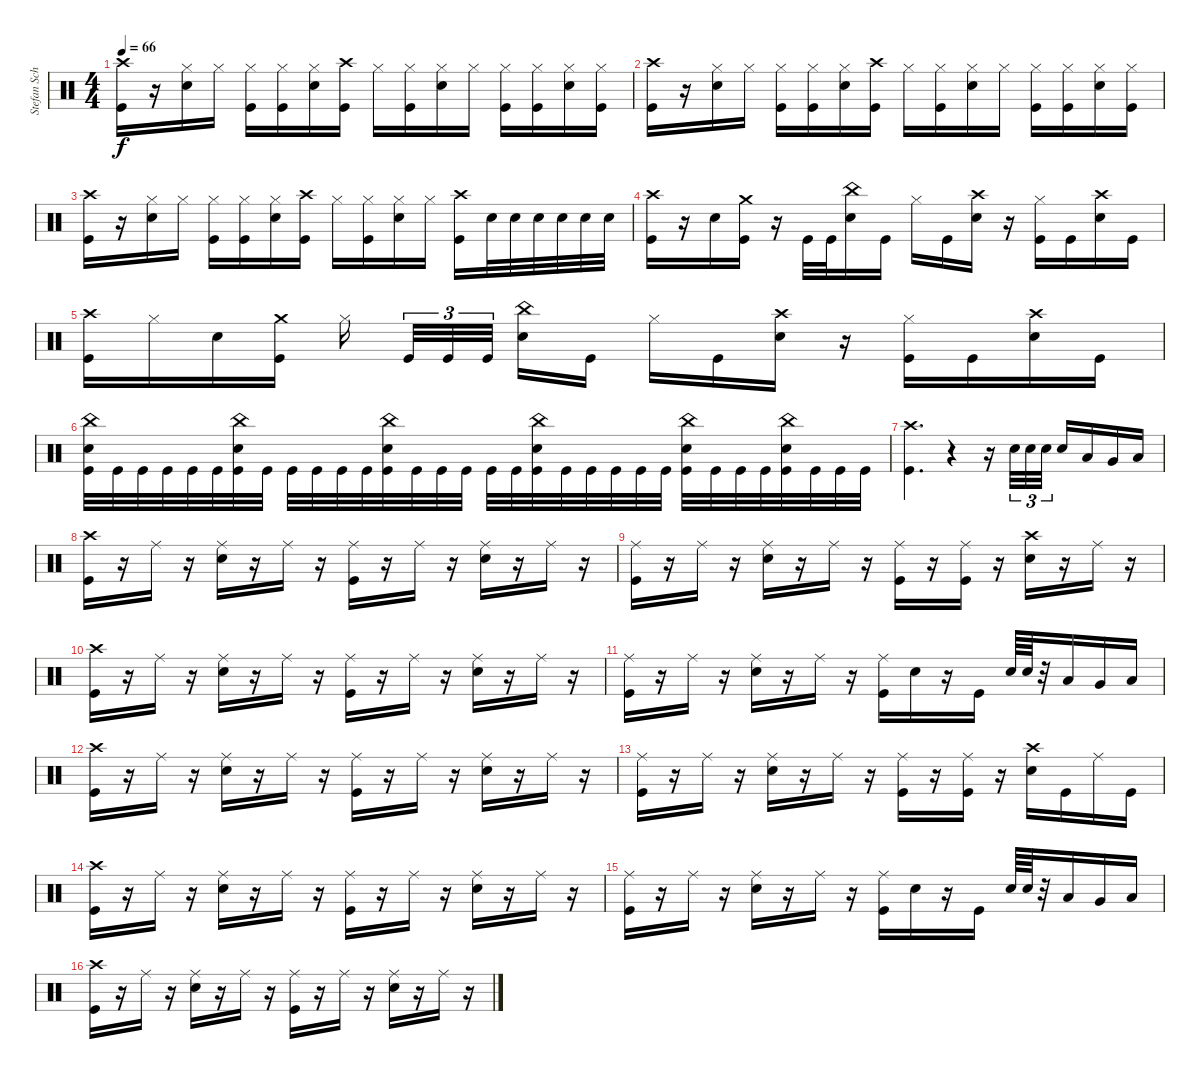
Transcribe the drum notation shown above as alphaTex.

\track ("Stefan Schwarzmann" "Stefan Sch") {instrument percussion}
\staff {score}
\articulation defaults
\ts (4 4)
\tempo 66
\clef neutral
\ks c
("Kick (hit)" "Crash high (hit)").16{dy f} r.16 ("Snare (hit) 2" "Hi-Hat (closed)").16 "Hi-Hat (closed)".16 ("Kick (hit)" "Hi-Hat (closed)").16 ("Kick (hit)" "Hi-Hat (closed)").16 ("Snare (hit) 2" "Hi-Hat (closed)").16 ("Kick (hit)" "Crash high (hit)").16 "Hi-Hat (closed)".16 ("Kick (hit)" "Hi-Hat (closed)").16 ("Snare (hit) 2" "Hi-Hat (closed)").16 "Hi-Hat (closed)".16 ("Kick (hit)" "Hi-Hat (closed)").16 ("Kick (hit)" "Hi-Hat (closed)").16 ("Snare (hit) 2" "Hi-Hat (closed)").16 ("Kick (hit)" "Hi-Hat (closed)").16 |
("Kick (hit)" "Crash high (hit)").16 r.16 ("Snare (hit) 2" "Hi-Hat (closed)").16 "Hi-Hat (closed)".16 ("Kick (hit)" "Hi-Hat (closed)").16 ("Kick (hit)" "Hi-Hat (closed)").16 ("Snare (hit) 2" "Hi-Hat (closed)").16 ("Kick (hit)" "Crash high (hit)").16 "Hi-Hat (closed)".16 ("Kick (hit)" "Hi-Hat (closed)").16 ("Snare (hit) 2" "Hi-Hat (closed)").16 "Hi-Hat (closed)".16 ("Kick (hit)" "Hi-Hat (closed)").16 ("Kick (hit)" "Hi-Hat (closed)").16 ("Snare (hit) 2" "Hi-Hat (closed)").16 ("Kick (hit)" "Hi-Hat (closed)").16 |
("Kick (hit)" "Crash high (hit)").16 r.16 ("Snare (hit) 2" "Hi-Hat (closed)").16 "Hi-Hat (closed)".16 ("Kick (hit)" "Hi-Hat (closed)").16 ("Kick (hit)" "Hi-Hat (closed)").16 ("Snare (hit) 2" "Hi-Hat (closed)").16 ("Kick (hit)" "Crash high (hit)").16 "Hi-Hat (closed)".16 ("Kick (hit)" "Hi-Hat (closed)").16 ("Snare (hit) 2" "Hi-Hat (closed)").16 "Hi-Hat (closed)".16 ("Kick (hit)" "Crash high (hit)").16 "Snare (hit) 2".32 "Snare (hit) 2".32 "Snare (hit) 2".32 "Snare (hit) 2".32 "Snare (hit) 2".32 "Snare (hit) 2".32 |
("Kick (hit)" "Crash high (hit)").16 r.16 "Snare (hit) 2".16 ("Kick (hit)" "Crash medium (hit)").16 r.16 "Kick (hit)".32 "Kick (hit)".32 ("Snare (hit) 2" "China (hit)").16 "Kick (hit)".16 "Hi-Hat (closed)".16 "Kick (hit)".16 ("Crash high (hit)" "Snare (hit) 2").16 r.16 ("Kick (hit)" "Hi-Hat (closed)").16 "Kick (hit)".16 ("Snare (hit) 2" "Crash high (hit)").16 "Kick (hit)".16 |
("Kick (hit)" "Crash high (hit)").16 "Hi-Hat (closed)".16 "Snare (hit) 2".16 ("Kick (hit)" "Crash medium (hit)").16 "Hi-Hat (closed)".16 "Kick (hit)".32{tu (3 2)} "Kick (hit)".32{tu (3 2)} "Kick (hit)".32{tu (3 2)} ("Snare (hit) 2" "China (hit)").16 "Kick (hit)".16 "Hi-Hat (closed)".16 "Kick (hit)".16 ("Crash high (hit)" "Snare (hit) 2").16 r.16 ("Kick (hit)" "Hi-Hat (closed)").16 "Kick (hit)".16 ("Snare (hit) 2" "Crash high (hit)").16 "Kick (hit)".16 |
("Snare (hit) 2" "Kick (hit)" "China (hit)").32 "Kick (hit)".32 "Kick (hit)".32 "Kick (hit)".32 "Kick (hit)".32 "Kick (hit)".32 ("Kick (hit)" "Snare (hit) 2" "China (hit)").32 "Kick (hit)".32 "Kick (hit)".32 "Kick (hit)".32 "Kick (hit)".32 "Kick (hit)".32 ("Kick (hit)" "Snare (hit) 2" "China (hit)").32 "Kick (hit)".32 "Kick (hit)".32 "Kick (hit)".32 "Kick (hit)".32 "Kick (hit)".32 ("Snare (hit) 2" "China (hit)" "Kick (hit)").32 "Kick (hit)".32 "Kick (hit)".32 "Kick (hit)".32 "Kick (hit)".32 "Kick (hit)".32 ("Kick (hit)" "Snare (hit) 2" "China (hit)").32 "Kick (hit)".32 "Kick (hit)".32 "Kick (hit)".32 ("Kick (hit)" "Snare (hit) 2" "China (hit)").32 "Kick (hit)".32 "Kick (hit)".32 "Kick (hit)".32 |
("Kick (hit)" "Crash high (hit)").4{d} r.4 r.16 "Snare (hit) 2".32{tu (3 2)} "Snare (hit) 2".32{tu (3 2)} "Snare (hit) 2".32{tu (3 2)} "Snare (hit) 2".16 "Low Tom (hit)".16 "Very Low Tom (hit)".16 "Low Floor Tom (hit)".16 |
("Kick (hit)" "Crash high (hit)").16 r.16 "Ride (middle)".16 r.16 ("Snare (hit) 2" "Ride (middle)").16 r.16 "Ride (middle)".16 r.16 ("Kick (hit)" "Ride (middle)").16 r.16 "Ride (middle)".16 r.16 ("Snare (hit) 2" "Ride (middle)").16 r.16 "Ride (middle)".16 r.16 |
("Kick (hit)" "Ride (middle)").16 r.16 "Ride (middle)".16 r.16 ("Snare (hit) 2" "Ride (middle)").16 r.16 "Ride (middle)".16 r.16 ("Kick (hit)" "Ride (middle)").16 r.16 ("Ride (middle)" "Kick (hit)").16 r.16 ("Snare (hit) 2" "Crash high (hit)").16 r.16 "Ride (middle)".16 r.16 |
("Kick (hit)" "Crash high (hit)").16 r.16 "Ride (middle)".16 r.16 ("Snare (hit) 2" "Ride (middle)").16 r.16 "Ride (middle)".16 r.16 ("Kick (hit)" "Ride (middle)").16 r.16 "Ride (middle)".16 r.16 ("Snare (hit) 2" "Ride (middle)").16 r.16 "Ride (middle)".16 r.16 |
("Kick (hit)" "Ride (middle)").16 r.16 "Ride (middle)".16 r.16 ("Snare (hit) 2" "Ride (middle)").16 r.16 "Ride (middle)".16 r.16 ("Kick (hit)" "Ride (middle)").16 "Snare (hit) 2".16 r.16 "Kick (hit)".16 "Snare (hit) 2".64 "Snare (hit) 2".64 r.32 "Low Tom (hit)".16 "Very Low Tom (hit)".16 "Low Floor Tom (hit)".16 |
("Kick (hit)" "Crash high (hit)").16 r.16 "Ride (middle)".16 r.16 ("Snare (hit) 2" "Ride (middle)").16 r.16 "Ride (middle)".16 r.16 ("Kick (hit)" "Ride (middle)").16 r.16 "Ride (middle)".16 r.16 ("Snare (hit) 2" "Ride (middle)").16 r.16 "Ride (middle)".16 r.16 |
("Kick (hit)" "Ride (middle)").16 r.16 "Ride (middle)".16 r.16 ("Snare (hit) 2" "Ride (middle)").16 r.16 "Ride (middle)".16 r.16 ("Kick (hit)" "Ride (middle)").16 r.16 ("Ride (middle)" "Kick (hit)").16 r.16 ("Snare (hit) 2" "Crash high (hit)").16 "Kick (hit)".16 "Ride (middle)".16 "Kick (hit)".16 |
("Kick (hit)" "Crash high (hit)").16 r.16 "Ride (middle)".16 r.16 ("Snare (hit) 2" "Ride (middle)").16 r.16 "Ride (middle)".16 r.16 ("Kick (hit)" "Ride (middle)").16 r.16 "Ride (middle)".16 r.16 ("Snare (hit) 2" "Ride (middle)").16 r.16 "Ride (middle)".16 r.16 |
("Kick (hit)" "Ride (middle)").16 r.16 "Ride (middle)".16 r.16 ("Snare (hit) 2" "Ride (middle)").16 r.16 "Ride (middle)".16 r.16 ("Kick (hit)" "Ride (middle)").16 "Snare (hit) 2".16 r.16 "Kick (hit)".16 "Snare (hit) 2".64 "Snare (hit) 2".64 r.32 "Low Tom (hit)".16 "Very Low Tom (hit)".16 "Low Floor Tom (hit)".16 |
("Kick (hit)" "Crash high (hit)").16 r.16 "Ride (middle)".16 r.16 ("Snare (hit) 2" "Ride (middle)").16 r.16 "Ride (middle)".16 r.16 ("Kick (hit)" "Ride (middle)").16 r.16 "Ride (middle)".16 r.16 ("Snare (hit) 2" "Ride (middle)").16 r.16 "Ride (middle)".16 r.16
